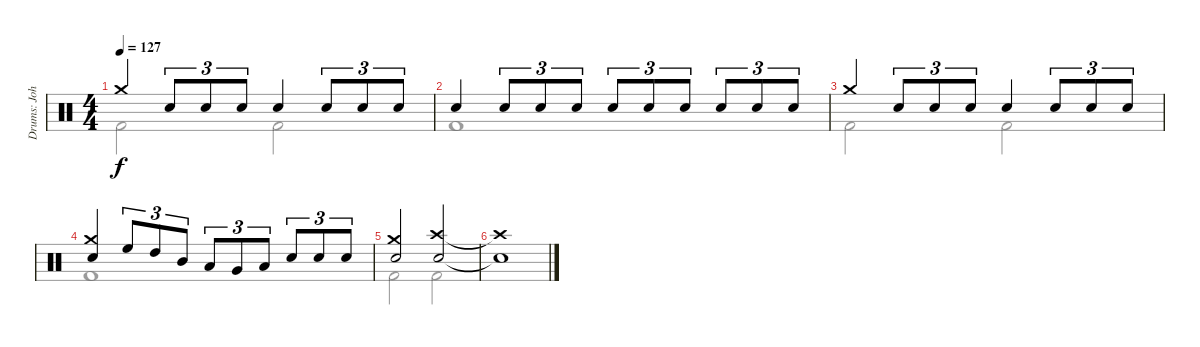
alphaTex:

\track ("Drums: John" "Drums: Joh") {instrument percussion}
\staff {score}
\articulation defaults
\voice
\ts (4 4)
\tempo 127
\clef neutral
\ks c "Crash medium (hit)".4{dy f} "Snare (hit) 2".8{tu (3 2)} "Snare (hit) 2".8{tu (3 2)} "Snare (hit) 2".8{tu (3 2)} "Snare (hit) 2".4 "Snare (hit) 2".8{tu (3 2)} "Snare (hit) 2".8{tu (3 2)} "Snare (hit) 2".8{tu (3 2)}
|
"Snare (hit) 2".4 "Snare (hit) 2".8{tu (3 2)} "Snare (hit) 2".8{tu (3 2)} "Snare (hit) 2".8{tu (3 2)} "Snare (hit) 2".8{tu (3 2)} "Snare (hit) 2".8{tu (3 2)} "Snare (hit) 2".8{tu (3 2)} "Snare (hit) 2".8{tu (3 2)} "Snare (hit) 2".8{tu (3 2)} "Snare (hit) 2".8{tu (3 2)} |
"Crash medium (hit)".4 "Snare (hit) 2".8{tu (3 2)} "Snare (hit) 2".8{tu (3 2)} "Snare (hit) 2".8{tu (3 2)} "Snare (hit) 2".4 "Snare (hit) 2".8{tu (3 2)} "Snare (hit) 2".8{tu (3 2)} "Snare (hit) 2".8{tu (3 2)} |
("Crash medium (hit)" "Snare (hit) 2").4 "High Floor Tom (hit)".8{tu (3 2)} "High Tom (hit)".8{tu (3 2)} "Mid Tom (hit)".8{tu (3 2)} "Low Tom (hit)".8{tu (3 2)} "Very Low Tom (hit)".8{tu (3 2)} "Low Floor Tom (hit)".8{tu (3 2)} "Snare (hit) 2".8{tu (3 2)} "Snare (hit) 2".8{tu (3 2)} "Snare (hit) 2".8{tu (3 2)} |
("Crash medium (hit)" "Snare (hit) 2").2 ("Crash high (hit)" "Snare (hit) 2").2 |
("Crash high (hit)"{t} "Snare (hit) 2"{t}).1 |
\voice
\clef neutral
\ottava regular
\simile none
\ks c "Kick (hit) 2".2{dy f} "Kick (hit) 2".2
|
"Kick (hit) 2".1 |
"Kick (hit) 2".2 "Kick (hit) 2".2 |
"Kick (hit) 2".1 |
"Kick (hit) 2".2 "Kick (hit) 2".2 |
|
